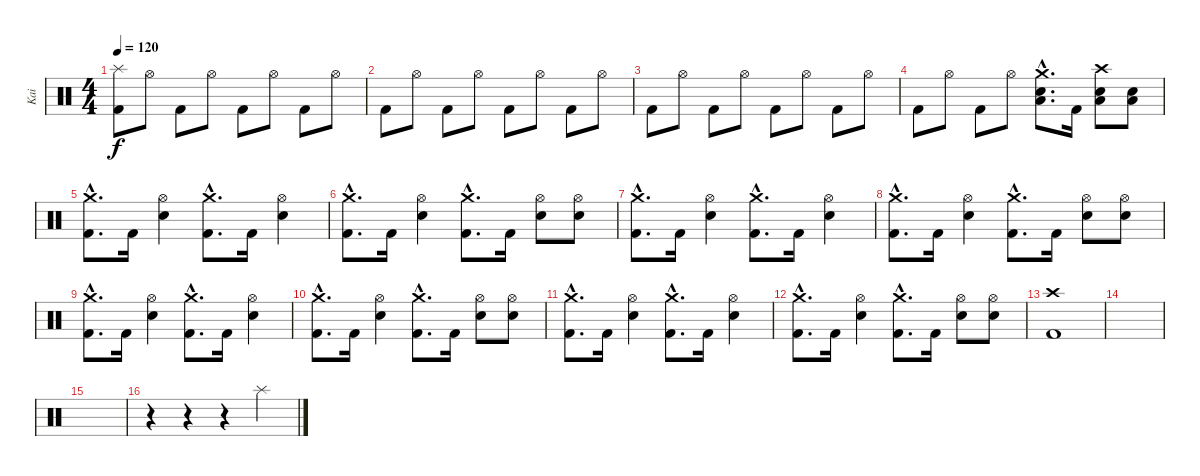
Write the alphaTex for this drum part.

\track ("Kai" "Kai") {instrument percussion}
\staff {score}
\articulation defaults
\ts (4 4)
\tempo 120
\clef neutral
\ks c
("Splash (hit)" "Kick (hit) 2").8{dy f} "Hi-Hat (open)".8 "Kick (hit) 2".8 "Hi-Hat (open)".8 "Kick (hit) 2".8 "Hi-Hat (open)".8 "Kick (hit) 2".8 "Hi-Hat (open)".8 |
"Kick (hit) 2".8 "Hi-Hat (open)".8 "Kick (hit) 2".8 "Hi-Hat (open)".8 "Kick (hit) 2".8 "Hi-Hat (open)".8 "Kick (hit) 2".8 "Hi-Hat (open)".8 |
"Kick (hit) 2".8 "Hi-Hat (open)".8 "Kick (hit) 2".8 "Hi-Hat (open)".8 "Kick (hit) 2".8 "Hi-Hat (open)".8 "Kick (hit) 2".8 "Hi-Hat (open)".8 |
"Kick (hit) 2".8 "Hi-Hat (open)".8 "Kick (hit) 2".8 "Hi-Hat (open)".8 ("Crash medium (hit)"{hac} "Low Floor Tom (hit)"{hac} "Electric Snare (hit)"{hac}).8{d} "Kick (hit) 2".16 ("Crash high (hit)" "Low Floor Tom (hit)" "Electric Snare (hit)").8 ("Low Floor Tom (hit)" "Electric Snare (hit)").8 |
("Crash medium (hit)"{hac} "Kick (hit) 2"{hac}).8{d} "Kick (hit) 2".16 ("Hi-Hat (open)" "Electric Snare (hit)").4 ("Crash medium (hit)"{hac} "Kick (hit) 2"{hac}).8{d} "Kick (hit) 2".16 ("Hi-Hat (open)" "Electric Snare (hit)").4 |
("Crash medium (hit)"{hac} "Kick (hit) 2"{hac}).8{d} "Kick (hit) 2".16 ("Hi-Hat (open)" "Electric Snare (hit)").4 ("Crash medium (hit)"{hac} "Kick (hit) 2"{hac}).8{d} "Kick (hit) 2".16 ("Hi-Hat (open)" "Electric Snare (hit)").8 ("Hi-Hat (open)" "Electric Snare (hit)").8 |
("Crash medium (hit)"{hac} "Kick (hit) 2"{hac}).8{d} "Kick (hit) 2".16 ("Hi-Hat (open)" "Electric Snare (hit)").4 ("Crash medium (hit)"{hac} "Kick (hit) 2"{hac}).8{d} "Kick (hit) 2".16 ("Hi-Hat (open)" "Electric Snare (hit)").4 |
("Crash medium (hit)"{hac} "Kick (hit) 2"{hac}).8{d} "Kick (hit) 2".16 ("Hi-Hat (open)" "Electric Snare (hit)").4 ("Crash medium (hit)"{hac} "Kick (hit) 2"{hac}).8{d} "Kick (hit) 2".16 ("Hi-Hat (open)" "Electric Snare (hit)").8 ("Hi-Hat (open)" "Electric Snare (hit)").8 |
("Crash medium (hit)"{hac} "Kick (hit) 2"{hac}).8{d} "Kick (hit) 2".16 ("Hi-Hat (open)" "Electric Snare (hit)").4 ("Crash medium (hit)"{hac} "Kick (hit) 2"{hac}).8{d} "Kick (hit) 2".16 ("Hi-Hat (open)" "Electric Snare (hit)").4 |
("Crash medium (hit)"{hac} "Kick (hit) 2"{hac}).8{d} "Kick (hit) 2".16 ("Hi-Hat (open)" "Electric Snare (hit)").4 ("Crash medium (hit)"{hac} "Kick (hit) 2"{hac}).8{d} "Kick (hit) 2".16 ("Hi-Hat (open)" "Electric Snare (hit)").8 ("Hi-Hat (open)" "Electric Snare (hit)").8 |
("Crash medium (hit)"{hac} "Kick (hit) 2"{hac}).8{d} "Kick (hit) 2".16 ("Hi-Hat (open)" "Electric Snare (hit)").4 ("Crash medium (hit)"{hac} "Kick (hit) 2"{hac}).8{d} "Kick (hit) 2".16 ("Hi-Hat (open)" "Electric Snare (hit)").4 |
("Crash medium (hit)"{hac} "Kick (hit) 2"{hac}).8{d} "Kick (hit) 2".16 ("Hi-Hat (open)" "Electric Snare (hit)").4 ("Crash medium (hit)"{hac} "Kick (hit) 2"{hac}).8{d} "Kick (hit) 2".16 ("Hi-Hat (open)" "Electric Snare (hit)").8 ("Hi-Hat (open)" "Electric Snare (hit)").8 |
("Crash high (hit)" "Kick (hit) 2").1 |
|
|
r.4 r.4 r.4 "Splash (hit)".4
